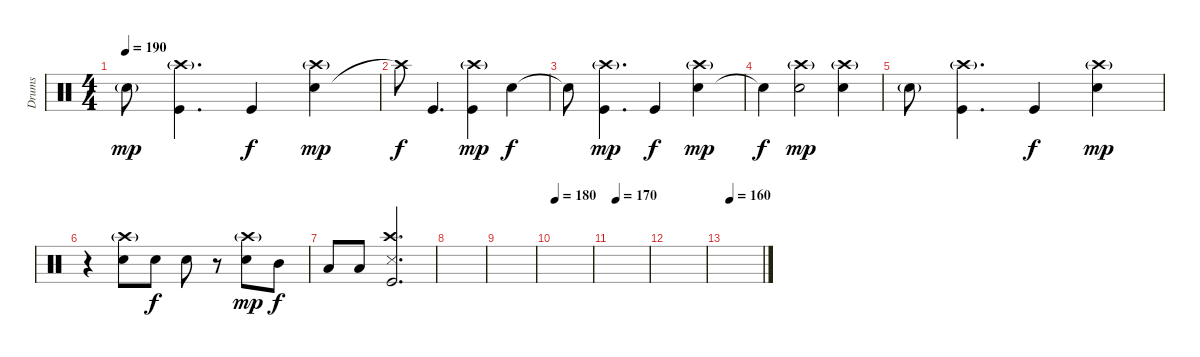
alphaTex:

\track ("Drums" "Drums") {instrument percussion}
\staff {score}
\articulation defaults
\ts (4 4)
\tempo 190
\clef neutral
\ks c "Electric Snare (hit)"{g}.8{dy mp}
("Kick (hit)" "Crash high (hit)"{g}).4{d} "Kick (hit)".4{dy f} ("Electric Snare (hit)" "Crash high (hit)"{g}).4{dy mp} |
"Crash high (hit)"{t}.8{dy f} "Kick (hit)".4{d} ("Kick (hit)" "Crash high (hit)"{g}).4{dy mp} "Electric Snare (hit)".4{dy f} |
"Electric Snare (hit)"{t}.8 ("Kick (hit)" "Crash high (hit)"{g}).4{d dy mp} "Kick (hit)".4{dy f} ("Electric Snare (hit)" "Crash high (hit)"{g}).4{dy mp} |
"Electric Snare (hit)"{t}.4{dy f} ("Electric Snare (hit)" "Crash high (hit)"{g}).2{dy mp} ("Electric Snare (hit)" "Crash high (hit)"{g}).4 |
"Electric Snare (hit)"{g}.8 ("Kick (hit)" "Crash high (hit)"{g}).4{d} "Kick (hit)".4{dy f} ("Electric Snare (hit)" "Crash high (hit)"{g}).4{dy mp} |
r.4 ("Electric Snare (hit)" "Crash high (hit)"{g}).8 "Electric Snare (hit)".8{dy f} "Electric Snare (hit)".8 r.8 ("Electric Snare (hit)" "Crash high (hit)"{g}).8{dy mp} "Mid Tom (hit)".8{dy f} |
"Low Tom (hit)".8 "Low Tom (hit)".8 ("Kick (hit)" "Snare (side stick) 3" "Crash high (hit)").2{d} |
|
|
\tempo 180
|
\tempo (170 0.125)
|
|
\tempo (160 0.125)
